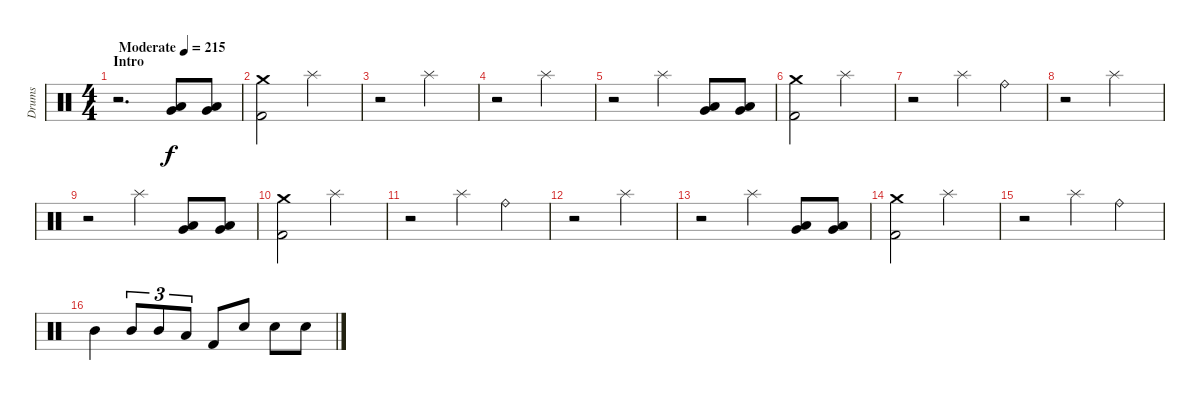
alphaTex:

\track ("Drums" "Drums") {instrument percussion}
\staff {score}
\articulation defaults
\ts (4 4)
\section ("" "Intro")
\tempo (215 "Moderate")
\clef neutral
\ks c
r.2{d dy f} ("Very Low Tom (hit)" "Low Floor Tom (hit)").8 ("Very Low Tom (hit)" "Low Floor Tom (hit)").8 |
("Crash medium (hit)" "Kick (hit) 2").2 "Splash (hit)".2 |
r.2 "Splash (hit)".2 |
r.2 "Splash (hit)".2 |
r.2 "Splash (hit)".4 ("Very Low Tom (hit)" "Low Floor Tom (hit)").8 ("Very Low Tom (hit)" "Low Floor Tom (hit)").8 |
("Crash medium (hit)" "Kick (hit) 2").2 "Splash (hit)".2 |
r.2 "Splash (hit)".4 "Ride (bell)".4 |
r.2 "Splash (hit)".2 |
r.2 "Splash (hit)".4 ("Very Low Tom (hit)" "Low Floor Tom (hit)").8 ("Very Low Tom (hit)" "Low Floor Tom (hit)").8 |
("Crash medium (hit)" "Kick (hit) 2").2 "Splash (hit)".2 |
r.2 "Splash (hit)".4 "Ride (bell)".4 |
r.2 "Splash (hit)".2 |
r.2 "Splash (hit)".4 ("Very Low Tom (hit)" "Low Floor Tom (hit)").8 ("Very Low Tom (hit)" "Low Floor Tom (hit)").8 |
("Crash medium (hit)" "Kick (hit) 2").2 "Splash (hit)".2 |
r.2 "Splash (hit)".4 "Ride (bell)".4 |
"Mid Tom (hit)".4 "Mid Tom (hit)".8{tu (3 2)} "Mid Tom (hit)".8{tu (3 2)} "Low Tom (hit)".8{tu (3 2)} "Kick (hit) 2".8 "Electric Snare (hit)".8 "Electric Snare (hit)".8 "Electric Snare (hit)".8
